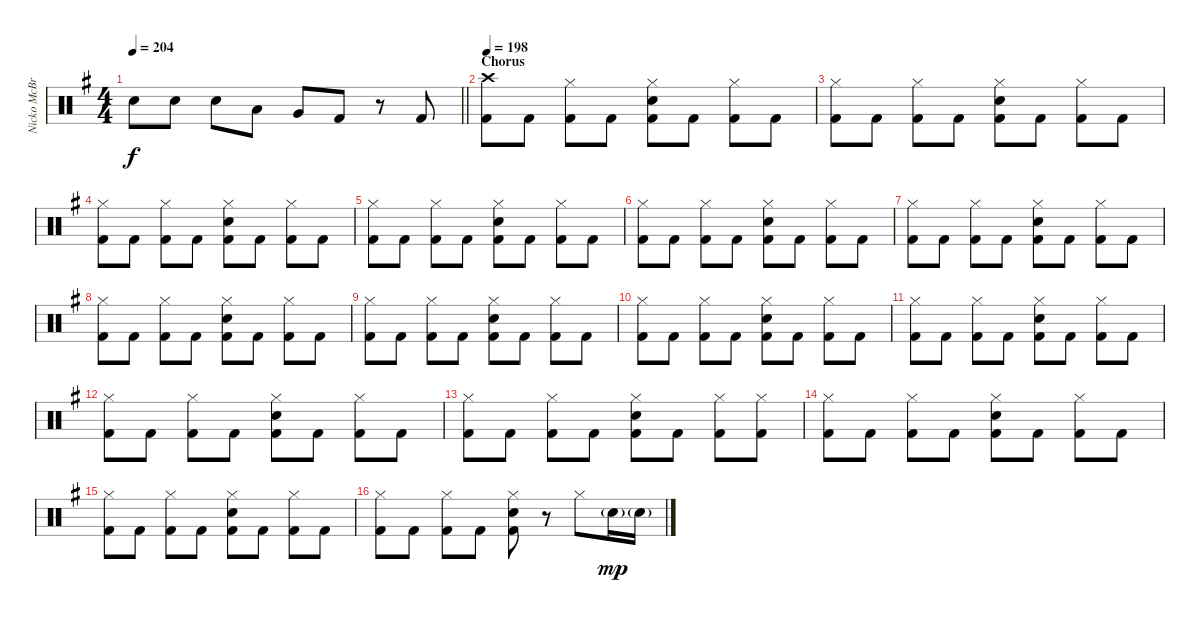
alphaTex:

\track ("Nicko McBrain (Drums)" "Nicko McBr") {instrument percussion}
\staff {score}
\articulation defaults
\ts (4 4)
\tempo 204
\clef neutral
\barLineRight lightlight
\ks eminor "Snare (hit) 2".8{dy f} "Snare (hit) 2".8 "Snare (hit) 2".8 "Low Tom (hit)".8 "Very Low Tom (hit)".8 "Kick (hit) 2".8
r.8 "Kick (hit) 2".8 |
\section ("" "Chorus")
\tempo 198
("Crash high (hit)" "Kick (hit) 2").8 "Kick (hit) 2".8 ("Hi-Hat (closed)" "Kick (hit) 2").8 "Kick (hit) 2".8 ("Hi-Hat (closed)" "Snare (hit) 2" "Kick (hit) 2").8 "Kick (hit) 2".8 ("Hi-Hat (closed)" "Kick (hit) 2").8 "Kick (hit) 2".8 |
("Hi-Hat (closed)" "Kick (hit) 2").8 "Kick (hit) 2".8 ("Hi-Hat (closed)" "Kick (hit) 2").8 "Kick (hit) 2".8 ("Hi-Hat (closed)" "Snare (hit) 2" "Kick (hit) 2").8 "Kick (hit) 2".8 ("Hi-Hat (closed)" "Kick (hit) 2").8 "Kick (hit) 2".8 |
("Hi-Hat (closed)" "Kick (hit) 2").8 "Kick (hit) 2".8 ("Hi-Hat (closed)" "Kick (hit) 2").8 "Kick (hit) 2".8 ("Hi-Hat (closed)" "Snare (hit) 2" "Kick (hit) 2").8 "Kick (hit) 2".8 ("Hi-Hat (closed)" "Kick (hit) 2").8 "Kick (hit) 2".8 |
("Hi-Hat (closed)" "Kick (hit) 2").8 "Kick (hit) 2".8 ("Hi-Hat (closed)" "Kick (hit) 2").8 "Kick (hit) 2".8 ("Hi-Hat (closed)" "Snare (hit) 2" "Kick (hit) 2").8 "Kick (hit) 2".8 ("Hi-Hat (closed)" "Kick (hit) 2").8 "Kick (hit) 2".8 |
("Hi-Hat (closed)" "Kick (hit) 2").8 "Kick (hit) 2".8 ("Hi-Hat (closed)" "Kick (hit) 2").8 "Kick (hit) 2".8 ("Hi-Hat (closed)" "Snare (hit) 2" "Kick (hit) 2").8 "Kick (hit) 2".8 ("Hi-Hat (closed)" "Kick (hit) 2").8 "Kick (hit) 2".8 |
("Hi-Hat (closed)" "Kick (hit) 2").8 "Kick (hit) 2".8 ("Hi-Hat (closed)" "Kick (hit) 2").8 "Kick (hit) 2".8 ("Hi-Hat (closed)" "Snare (hit) 2" "Kick (hit) 2").8 "Kick (hit) 2".8 ("Hi-Hat (closed)" "Kick (hit) 2").8 "Kick (hit) 2".8 |
("Hi-Hat (closed)" "Kick (hit) 2").8 "Kick (hit) 2".8 ("Hi-Hat (closed)" "Kick (hit) 2").8 "Kick (hit) 2".8 ("Hi-Hat (closed)" "Snare (hit) 2" "Kick (hit) 2").8 "Kick (hit) 2".8 ("Hi-Hat (closed)" "Kick (hit) 2").8 "Kick (hit) 2".8 |
("Hi-Hat (closed)" "Kick (hit) 2").8 "Kick (hit) 2".8 ("Hi-Hat (closed)" "Kick (hit) 2").8 "Kick (hit) 2".8 ("Hi-Hat (closed)" "Snare (hit) 2" "Kick (hit) 2").8 "Kick (hit) 2".8 ("Hi-Hat (closed)" "Kick (hit) 2").8 "Kick (hit) 2".8 |
("Hi-Hat (closed)" "Kick (hit) 2").8 "Kick (hit) 2".8 ("Hi-Hat (closed)" "Kick (hit) 2").8 "Kick (hit) 2".8 ("Hi-Hat (closed)" "Snare (hit) 2" "Kick (hit) 2").8 "Kick (hit) 2".8 ("Hi-Hat (closed)" "Kick (hit) 2").8 "Kick (hit) 2".8 |
("Hi-Hat (closed)" "Kick (hit) 2").8 "Kick (hit) 2".8 ("Hi-Hat (closed)" "Kick (hit) 2").8 "Kick (hit) 2".8 ("Hi-Hat (closed)" "Snare (hit) 2" "Kick (hit) 2").8 "Kick (hit) 2".8 ("Hi-Hat (closed)" "Kick (hit) 2").8 "Kick (hit) 2".8 |
("Hi-Hat (closed)" "Kick (hit) 2").8 "Kick (hit) 2".8 ("Hi-Hat (closed)" "Kick (hit) 2").8 "Kick (hit) 2".8 ("Hi-Hat (closed)" "Snare (hit) 2" "Kick (hit) 2").8 "Kick (hit) 2".8 ("Hi-Hat (closed)" "Kick (hit) 2").8 "Kick (hit) 2".8 |
("Hi-Hat (closed)" "Kick (hit) 2").8 "Kick (hit) 2".8 ("Hi-Hat (closed)" "Kick (hit) 2").8 "Kick (hit) 2".8 ("Hi-Hat (closed)" "Snare (hit) 2" "Kick (hit) 2").8 "Kick (hit) 2".8 ("Hi-Hat (closed)" "Kick (hit) 2").8 ("Hi-Hat (closed)" "Kick (hit) 2").8 |
("Hi-Hat (closed)" "Kick (hit) 2").8 "Kick (hit) 2".8 ("Hi-Hat (closed)" "Kick (hit) 2").8 "Kick (hit) 2".8 ("Hi-Hat (closed)" "Snare (hit) 2" "Kick (hit) 2").8 "Kick (hit) 2".8 ("Hi-Hat (closed)" "Kick (hit) 2").8 "Kick (hit) 2".8 |
("Hi-Hat (closed)" "Kick (hit) 2").8 "Kick (hit) 2".8 ("Hi-Hat (closed)" "Kick (hit) 2").8 "Kick (hit) 2".8 ("Hi-Hat (closed)" "Snare (hit) 2" "Kick (hit) 2").8 "Kick (hit) 2".8 ("Hi-Hat (closed)" "Kick (hit) 2").8 "Kick (hit) 2".8 |
("Hi-Hat (closed)" "Kick (hit) 2").8 "Kick (hit) 2".8 ("Hi-Hat (closed)" "Kick (hit) 2").8 "Kick (hit) 2".8 ("Hi-Hat (closed)" "Snare (hit) 2" "Kick (hit) 2").8 r.8 "Hi-Hat (closed)".8 "Snare (hit) 2"{g}.16{dy mp} "Snare (hit) 2"{g}.16
